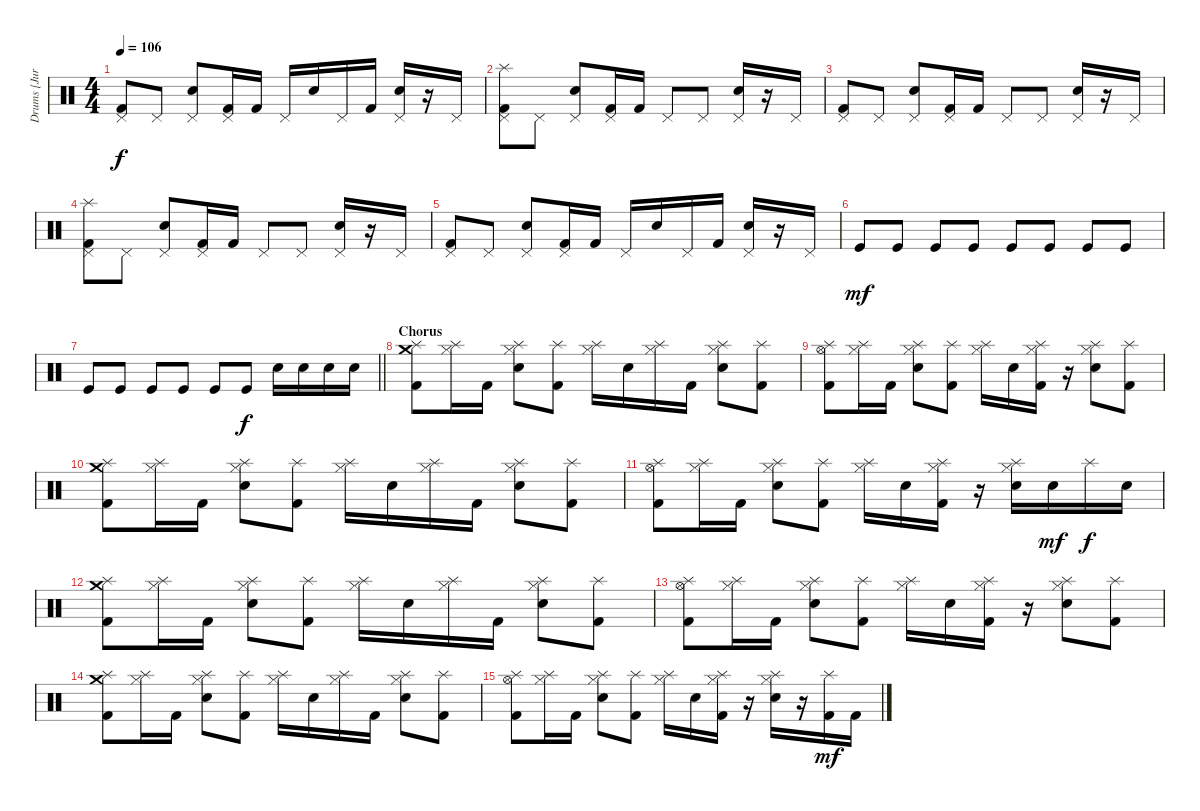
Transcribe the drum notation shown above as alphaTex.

\track ("Drums [Juri]" "Drums [Jur") {instrument percussion}
\staff {score}
\articulation defaults
\ts (4 4)
\tempo 106
\clef neutral
\ks c
("Pedal Hi-Hat (hit)" "Kick (hit) 2").8{dy f} "Pedal Hi-Hat (hit)".8 ("Pedal Hi-Hat (hit)" "Electric Snare (hit)").8 ("Pedal Hi-Hat (hit)" "Kick (hit) 2").16 "Kick (hit) 2".16 "Pedal Hi-Hat (hit)".16 "Electric Snare (hit)".16 "Pedal Hi-Hat (hit)".16 "Kick (hit) 2".16 ("Pedal Hi-Hat (hit)" "Electric Snare (hit)").16 r.16 "Pedal Hi-Hat (hit)".16 |
("Pedal Hi-Hat (hit)" "Splash (hit)" "Kick (hit) 2").8 "Pedal Hi-Hat (hit)".8 ("Pedal Hi-Hat (hit)" "Electric Snare (hit)").8 ("Pedal Hi-Hat (hit)" "Kick (hit) 2").16 "Kick (hit) 2".16 "Pedal Hi-Hat (hit)".8 "Pedal Hi-Hat (hit)".8 ("Pedal Hi-Hat (hit)" "Electric Snare (hit)").16 r.16 "Pedal Hi-Hat (hit)".16 |
("Pedal Hi-Hat (hit)" "Kick (hit) 2").8 "Pedal Hi-Hat (hit)".8 ("Pedal Hi-Hat (hit)" "Electric Snare (hit)").8 ("Pedal Hi-Hat (hit)" "Kick (hit) 2").16 "Kick (hit) 2".16 "Pedal Hi-Hat (hit)".8 "Pedal Hi-Hat (hit)".8 ("Pedal Hi-Hat (hit)" "Electric Snare (hit)").16 r.16 "Pedal Hi-Hat (hit)".16 |
("Pedal Hi-Hat (hit)" "Splash (hit)" "Kick (hit) 2").8 "Pedal Hi-Hat (hit)".8 ("Pedal Hi-Hat (hit)" "Electric Snare (hit)").8 ("Pedal Hi-Hat (hit)" "Kick (hit) 2").16 "Kick (hit) 2".16 "Pedal Hi-Hat (hit)".8 "Pedal Hi-Hat (hit)".8 ("Pedal Hi-Hat (hit)" "Electric Snare (hit)").16 r.16 "Pedal Hi-Hat (hit)".16 |
("Pedal Hi-Hat (hit)" "Kick (hit) 2").8 "Pedal Hi-Hat (hit)".8 ("Pedal Hi-Hat (hit)" "Electric Snare (hit)").8 ("Pedal Hi-Hat (hit)" "Kick (hit) 2").16 "Kick (hit) 2".16 "Pedal Hi-Hat (hit)".16 "Electric Snare (hit)".16 "Pedal Hi-Hat (hit)".16 "Kick (hit) 2".16 ("Pedal Hi-Hat (hit)" "Electric Snare (hit)").16 r.16 "Pedal Hi-Hat (hit)".16 |
"Kick (hit)".8{dy mf} "Kick (hit)".8 "Kick (hit)".8 "Kick (hit)".8 "Kick (hit)".8 "Kick (hit)".8 "Kick (hit)".8 "Kick (hit)".8 |
\barLineRight lightlight "Kick (hit)".8 "Kick (hit)".8 "Kick (hit)".8 "Kick (hit)".8 "Kick (hit)".8 "Kick (hit)".8{dy f} "Electric Snare (hit)".16 "Electric Snare (hit)".16 "Electric Snare (hit)".16 "Electric Snare (hit)".16
|
\section ("" "Chorus")
("Crash medium (hit)" "Splash (hit)" "Kick (hit) 2").8 ("Splash (hit)" "Hi-Hat (closed)").16 "Kick (hit) 2".16 ("Splash (hit)" "Hi-Hat (closed)" "Electric Snare (hit)").8 ("Splash (hit)" "Kick (hit) 2").8 ("Splash (hit)" "Hi-Hat (closed)").16 "Electric Snare (hit)".16 ("Splash (hit)" "Hi-Hat (closed)").16 "Kick (hit) 2".16 ("Splash (hit)" "Hi-Hat (closed)" "Electric Snare (hit)").8 ("Splash (hit)" "Kick (hit) 2").8 |
("Splash (hit)" "Hi-Hat (open)" "Kick (hit) 2").8 ("Splash (hit)" "Hi-Hat (closed)").16 "Kick (hit) 2".16 ("Splash (hit)" "Hi-Hat (closed)" "Electric Snare (hit)").8 ("Splash (hit)" "Kick (hit) 2").8 ("Splash (hit)" "Hi-Hat (closed)").16 "Electric Snare (hit)".16 ("Splash (hit)" "Hi-Hat (closed)" "Kick (hit) 2").16 r.16 ("Splash (hit)" "Hi-Hat (closed)" "Electric Snare (hit)").8 ("Splash (hit)" "Kick (hit) 2").8 |
("Crash medium (hit)" "Splash (hit)" "Kick (hit) 2").8 ("Splash (hit)" "Hi-Hat (closed)").16 "Kick (hit) 2".16 ("Splash (hit)" "Hi-Hat (closed)" "Electric Snare (hit)").8 ("Splash (hit)" "Kick (hit) 2").8 ("Splash (hit)" "Hi-Hat (closed)").16 "Electric Snare (hit)".16 ("Splash (hit)" "Hi-Hat (closed)").16 "Kick (hit) 2".16 ("Splash (hit)" "Hi-Hat (closed)" "Electric Snare (hit)").8 ("Splash (hit)" "Kick (hit) 2").8 |
("Splash (hit)" "Hi-Hat (open)" "Kick (hit) 2").8 ("Splash (hit)" "Hi-Hat (closed)").16 "Kick (hit) 2".16 ("Splash (hit)" "Hi-Hat (closed)" "Electric Snare (hit)").8 ("Splash (hit)" "Kick (hit) 2").8 ("Splash (hit)" "Hi-Hat (closed)").16 "Electric Snare (hit)".16 ("Splash (hit)" "Hi-Hat (closed)" "Kick (hit) 2").16 r.16 ("Splash (hit)" "Hi-Hat (closed)" "Electric Snare (hit)").16 "Electric Snare (hit)".16{dy mf} "Splash (hit)".16{dy f} "Electric Snare (hit)".16 |
("Splash (hit)" "Crash medium (hit)" "Kick (hit) 2").8 ("Splash (hit)" "Hi-Hat (closed)").16 "Kick (hit) 2".16 ("Splash (hit)" "Hi-Hat (closed)" "Electric Snare (hit)").8 ("Splash (hit)" "Kick (hit) 2").8 ("Splash (hit)" "Hi-Hat (closed)").16 "Electric Snare (hit)".16 ("Splash (hit)" "Hi-Hat (closed)").16 "Kick (hit) 2".16 ("Splash (hit)" "Hi-Hat (closed)" "Electric Snare (hit)").8 ("Splash (hit)" "Kick (hit) 2").8 |
("Splash (hit)" "Hi-Hat (open)" "Kick (hit) 2").8 ("Splash (hit)" "Hi-Hat (closed)").16 "Kick (hit) 2".16 ("Splash (hit)" "Hi-Hat (closed)" "Electric Snare (hit)").8 ("Splash (hit)" "Kick (hit) 2").8 ("Splash (hit)" "Hi-Hat (closed)").16 "Electric Snare (hit)".16 ("Splash (hit)" "Hi-Hat (closed)" "Kick (hit) 2").16 r.16 ("Splash (hit)" "Hi-Hat (closed)" "Electric Snare (hit)").8 ("Splash (hit)" "Kick (hit) 2").8 |
("Crash medium (hit)" "Splash (hit)" "Kick (hit) 2").8 ("Splash (hit)" "Hi-Hat (closed)").16 "Kick (hit) 2".16 ("Splash (hit)" "Hi-Hat (closed)" "Electric Snare (hit)").8 ("Splash (hit)" "Kick (hit) 2").8 ("Splash (hit)" "Hi-Hat (closed)").16 "Electric Snare (hit)".16 ("Splash (hit)" "Hi-Hat (closed)").16 "Kick (hit) 2".16 ("Splash (hit)" "Hi-Hat (closed)" "Electric Snare (hit)").8 ("Splash (hit)" "Kick (hit) 2").8 |
("Splash (hit)" "Hi-Hat (open)" "Kick (hit) 2").8 ("Splash (hit)" "Hi-Hat (closed)").16 "Kick (hit) 2".16 ("Splash (hit)" "Hi-Hat (closed)" "Electric Snare (hit)").8 ("Splash (hit)" "Kick (hit) 2").8 ("Splash (hit)" "Hi-Hat (closed)").16 "Electric Snare (hit)".16 ("Splash (hit)" "Hi-Hat (closed)" "Kick (hit) 2").16 r.16 ("Splash (hit)" "Hi-Hat (closed)" "Electric Snare (hit)").16 r.16 ("Splash (hit)" "Kick (hit) 2").16{dy mf} "Kick (hit) 2".16
